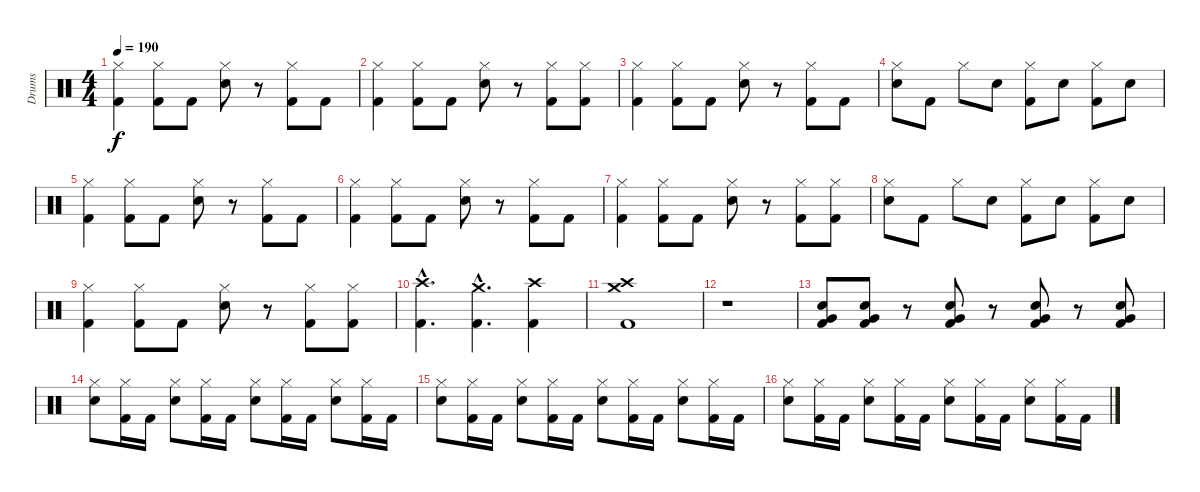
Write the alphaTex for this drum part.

\track ("Drums" "Drums") {instrument percussion}
\staff {score}
\articulation defaults
\ts (4 4)
\tempo 190
\clef neutral
\ks c
("Kick (hit) 2" "Hi-Hat (closed)").4{dy f} ("Kick (hit) 2" "Hi-Hat (closed)").8 "Kick (hit) 2".8 ("Snare (hit) 2" "Hi-Hat (closed)").8 r.8 ("Kick (hit) 2" "Hi-Hat (closed)").8 "Kick (hit) 2".8 |
("Kick (hit) 2" "Hi-Hat (closed)").4 ("Kick (hit) 2" "Hi-Hat (closed)").8 "Kick (hit) 2".8 ("Snare (hit) 2" "Hi-Hat (closed)").8 r.8 ("Kick (hit) 2" "Hi-Hat (closed)").8 ("Kick (hit) 2" "Hi-Hat (closed)").8 |
("Kick (hit) 2" "Hi-Hat (closed)").4 ("Kick (hit) 2" "Hi-Hat (closed)").8 "Kick (hit) 2".8 ("Snare (hit) 2" "Hi-Hat (closed)").8 r.8 ("Kick (hit) 2" "Hi-Hat (closed)").8 "Kick (hit) 2".8 |
("Snare (hit) 2" "Hi-Hat (closed)").8 "Kick (hit) 2".8 "Hi-Hat (closed)".8 "Snare (hit) 2".8 ("Kick (hit) 2" "Hi-Hat (closed)").8 "Snare (hit) 2".8 ("Kick (hit) 2" "Hi-Hat (closed)").8 "Snare (hit) 2".8 |
("Kick (hit) 2" "Hi-Hat (closed)").4 ("Kick (hit) 2" "Hi-Hat (closed)").8 "Kick (hit) 2".8 ("Snare (hit) 2" "Hi-Hat (closed)").8 r.8 ("Kick (hit) 2" "Hi-Hat (closed)").8 "Kick (hit) 2".8 |
("Kick (hit) 2" "Hi-Hat (closed)").4 ("Kick (hit) 2" "Hi-Hat (closed)").8 "Kick (hit) 2".8 ("Snare (hit) 2" "Hi-Hat (closed)").8 r.8 ("Kick (hit) 2" "Hi-Hat (closed)").8 "Kick (hit) 2".8 |
("Kick (hit) 2" "Hi-Hat (closed)").4 ("Kick (hit) 2" "Hi-Hat (closed)").8 "Kick (hit) 2".8 ("Snare (hit) 2" "Hi-Hat (closed)").8 r.8 ("Kick (hit) 2" "Hi-Hat (closed)").8 ("Kick (hit) 2" "Hi-Hat (closed)").8 |
("Snare (hit) 2" "Hi-Hat (closed)").8 "Kick (hit) 2".8 "Hi-Hat (closed)".8 "Snare (hit) 2".8 ("Kick (hit) 2" "Hi-Hat (closed)").8 "Snare (hit) 2".8 ("Kick (hit) 2" "Hi-Hat (closed)").8 "Snare (hit) 2".8 |
("Kick (hit) 2" "Hi-Hat (closed)").4 ("Kick (hit) 2" "Hi-Hat (closed)").8 "Kick (hit) 2".8 ("Snare (hit) 2" "Hi-Hat (closed)").8 r.8 ("Kick (hit) 2" "Hi-Hat (closed)").8 ("Kick (hit) 2" "Hi-Hat (closed)").8 |
("Kick (hit) 2"{hac} "Crash high (hit)"{hac}).4{d} ("Kick (hit) 2"{hac} "Crash medium (hit)"{hac}).4{d} ("Kick (hit) 2" "Crash high (hit)").4 |
("Kick (hit) 2" "Crash medium (hit)" "Crash high (hit)").1 |
r.1 |
("Kick (hit) 2" "Very Low Tom (hit)" "Snare (hit) 2").8 ("Kick (hit) 2" "Very Low Tom (hit)" "Snare (hit) 2").8 r.8 ("Kick (hit) 2" "Very Low Tom (hit)" "Snare (hit) 2").8 r.8 ("Kick (hit) 2" "Very Low Tom (hit)" "Snare (hit) 2").8 r.8 ("Kick (hit) 2" "Very Low Tom (hit)" "Snare (hit) 2").8 |
("Snare (hit) 2" "Hi-Hat (closed)").8 ("Kick (hit) 2" "Hi-Hat (closed)").16 "Kick (hit) 2".16 ("Snare (hit) 2" "Hi-Hat (closed)").8 ("Kick (hit) 2" "Hi-Hat (closed)").16 "Kick (hit) 2".16 ("Snare (hit) 2" "Hi-Hat (closed)").8 ("Kick (hit) 2" "Hi-Hat (closed)").16 "Kick (hit) 2".16 ("Snare (hit) 2" "Hi-Hat (closed)").8 ("Kick (hit) 2" "Hi-Hat (closed)").16 "Kick (hit) 2".16 |
("Snare (hit) 2" "Hi-Hat (closed)").8 ("Kick (hit) 2" "Hi-Hat (closed)").16 "Kick (hit) 2".16 ("Snare (hit) 2" "Hi-Hat (closed)").8 ("Kick (hit) 2" "Hi-Hat (closed)").16 "Kick (hit) 2".16 ("Snare (hit) 2" "Hi-Hat (closed)").8 ("Kick (hit) 2" "Hi-Hat (closed)").16 "Kick (hit) 2".16 ("Snare (hit) 2" "Hi-Hat (closed)").8 ("Kick (hit) 2" "Hi-Hat (closed)").16 "Kick (hit) 2".16 |
("Snare (hit) 2" "Hi-Hat (closed)").8 ("Kick (hit) 2" "Hi-Hat (closed)").16 "Kick (hit) 2".16 ("Snare (hit) 2" "Hi-Hat (closed)").8 ("Kick (hit) 2" "Hi-Hat (closed)").16 "Kick (hit) 2".16 ("Snare (hit) 2" "Hi-Hat (closed)").8 ("Kick (hit) 2" "Hi-Hat (closed)").16 "Kick (hit) 2".16 ("Snare (hit) 2" "Hi-Hat (closed)").8 ("Kick (hit) 2" "Hi-Hat (closed)").16 "Kick (hit) 2".16
